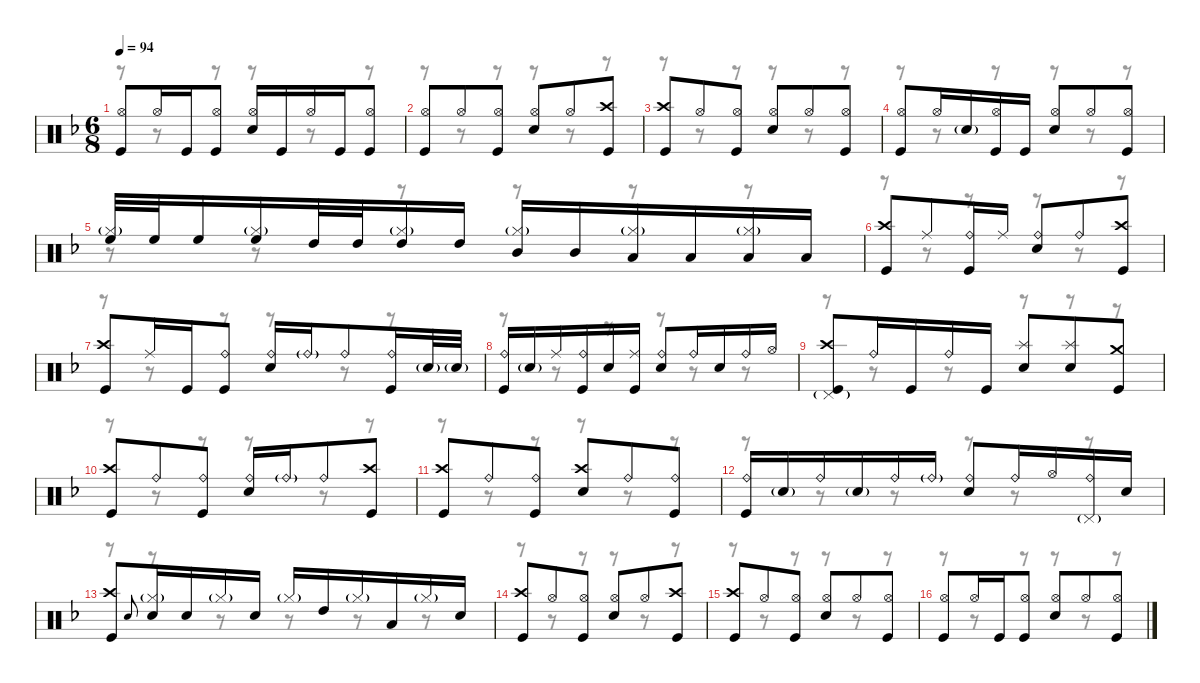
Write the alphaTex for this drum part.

\defaultSystemsLayout 4
\hideDynamics
\bracketExtendMode nobrackets
\singleTrackTrackNamePolicy hidden
\multiTrackTrackNamePolicy hidden
\otherSystemsTrackNameOrientation horizontal
\track ("M. Lopez" "drm.") {instrument percussion}
\staff {score}
\articulation defaults
\voice
\ts (6 8)
\tempo 94
\clef neutral
\ks dminor
("Hi-Hat (open)"{acc forcenatural} "Kick (hit)"{acc forcenatural}).8{dy f beam Up} "Hi-Hat (open)"{acc forcenatural}.16{beam Up} "Kick (hit)"{acc forcenatural}.16{beam Up} ("Hi-Hat (open)"{acc forcenatural} "Kick (hit)"{acc forcenatural}).8{beam Up} ("Hi-Hat (open)"{acc forcenatural} "Snare (hit) 2"{acc forcenatural}).16{beam Up} "Kick (hit)"{acc forcenatural}.16{beam Up} "Hi-Hat (open)"{acc forcenatural}.16{beam Up} "Kick (hit)"{acc forcenatural}.16{beam Up} ("Hi-Hat (open)"{acc forcenatural} "Kick (hit)"{acc forcenatural}).8{beam Up} |
("Hi-Hat (open)"{acc forcenatural} "Kick (hit)"{acc forcenatural}).8{beam Up} "Hi-Hat (open)"{acc forcenatural}.8{beam Up} ("Hi-Hat (open)"{acc forcenatural} "Kick (hit)"{acc forcenatural}).8{beam Up} ("Hi-Hat (open)"{acc forcenatural} "Snare (hit) 2"{acc forcenatural}).8{beam Up} "Hi-Hat (open)"{acc forcenatural}.8{beam Up} ("Crash high (hit)"{acc forcenatural} "Kick (hit)"{acc forcenatural}).8{beam Up} |
("Crash high (hit)"{acc forcenatural} "Kick (hit)"{acc forcenatural}).8{beam Up} "Hi-Hat (open)"{acc forcenatural}.8{beam Up} ("Hi-Hat (open)"{acc forcenatural} "Kick (hit)"{acc forcenatural}).8{beam Up} ("Hi-Hat (open)"{acc forcenatural} "Snare (hit) 2"{acc forcenatural}).8{beam Up} "Hi-Hat (open)"{acc forcenatural}.8{beam Up} ("Hi-Hat (open)"{acc forcenatural} "Kick (hit)"{acc forcenatural}).8{beam Up} |
("Hi-Hat (open)"{acc forcenatural} "Kick (hit)"{acc forcenatural}).8{beam Up} "Hi-Hat (open)"{acc forcenatural}.16{beam Up} "Snare (hit) 2"{g acc forcenatural}.16{dy ff beam Up} ("Hi-Hat (open)"{acc forcenatural} "Kick (hit)"{acc forcenatural}).16{dy f beam Up} "Kick (hit)"{acc forcenatural}.16{beam Up} ("Hi-Hat (open)"{acc forcenatural} "Snare (hit) 2"{acc forcenatural}).8{beam Up} "Hi-Hat (open)"{acc forcenatural}.8{beam Up} ("Hi-Hat (open)"{acc forcenatural} "Kick (hit)"{acc forcenatural}).8{beam Up} |
("Hi-Hat (closed)"{g acc forcenatural} "High Floor Tom (hit)"{acc forcenatural}).32{beam Up} "High Floor Tom (hit)"{acc forcenatural}.32{beam Up} "High Floor Tom (hit)"{acc forcenatural}.16{beam Up} ("Hi-Hat (closed)"{g acc forcenatural} "High Floor Tom (hit)"{acc forcenatural}).16{beam Up} "High Tom (hit)"{acc forcenatural}.32{beam Up} "High Tom (hit)"{acc forcenatural}.32{beam Up} ("Hi-Hat (closed)"{g acc forcenatural} "High Tom (hit)"{acc forcenatural}).16{beam Up} "High Tom (hit)"{acc forcenatural}.16{beam Up} ("Hi-Hat (closed)"{g acc forcenatural} "Mid Tom (hit)"{acc forcenatural}).16{beam Up} "Mid Tom (hit)"{acc forcenatural}.16{beam Up} ("Hi-Hat (closed)"{g acc forcenatural} "Low Tom (hit)"{acc forcenatural}).16{beam Up} "Low Tom (hit)"{acc forcenatural}.16{beam Up} ("Hi-Hat (closed)"{g acc forcenatural} "Low Floor Tom (hit)"{acc forcenatural}).16{beam Up} "Low Floor Tom (hit)"{acc forcenatural}.16{beam Up} |
("Crash high (hit)"{acc forcenatural} "Kick (hit)"{acc forcenatural}).8{beam Up} "Ride (middle)"{acc forcenatural}.8{beam Up} ("Ride (bell)"{acc forcenatural} "Kick (hit)"{acc forcenatural}).16{beam Up} "Ride (middle)"{acc forcenatural}.16{beam Up} ("Ride (bell)"{acc forcenatural} "Snare (hit) 2"{acc forcenatural}).8{beam Up} "Ride (bell)"{acc forcenatural}.8{beam Up} ("Crash high (hit)"{acc forcenatural} "Kick (hit)"{acc forcenatural}).8{beam Up} |
("Crash high (hit)"{acc forcenatural} "Kick (hit)"{acc forcenatural}).8{beam Up} "Ride (middle)"{acc forcenatural}.16{beam Up} "Kick (hit)"{acc forcenatural}.16{beam Up} ("Ride (bell)"{acc forcenatural} "Kick (hit)"{acc forcenatural}).8{beam Up} ("Ride (bell)"{acc forcenatural} "Snare (hit) 2"{acc forcenatural}).16{beam Up} "Ride (bell)"{g acc forcenatural}.16{beam Up} "Ride (bell)"{acc forcenatural}.8{beam Up} ("Ride (bell)"{acc forcenatural} "Kick (hit)"{acc forcenatural}).16{beam Up} "Snare (hit) 2"{g acc forcenatural}.32{beam Up} "Snare (hit) 2"{g acc forcenatural}.32{beam Up} |
("Ride (bell)"{acc forcenatural} "Kick (hit)"{acc forcenatural}).16{beam Up} "Snare (hit) 2"{g acc forcenatural}.16{beam Up} "Ride (middle)"{acc forcenatural}.16{beam Up} ("Ride (bell)"{acc forcenatural} "Kick (hit)"{acc forcenatural}).16{beam Up} "Snare (hit) 2"{acc forcenatural}.16{dy mf beam Up} ("Ride (middle)"{acc forcenatural} "Kick (hit)"{acc forcenatural}).16{dy f beam Up} ("Ride (bell)"{acc forcenatural} "Snare (hit) 2"{acc forcenatural}).8{beam Up} "Ride (bell)"{acc forcenatural}.16{beam Up} "Snare (hit) 2"{acc forcenatural}.16{dy mf beam Up} "Ride (bell)"{acc forcenatural}.16{dy f beam Up} "Hi-Hat (open)"{acc forcenatural}.16{beam Up} |
("Crash high (hit)"{acc forcenatural} "Pedal Hi-Hat (hit)"{g acc forcenatural} "Kick (hit)"{acc forcenatural}).8{beam Up} "Ride (bell)"{acc forcenatural}.16{beam Up} "Kick (hit)"{acc forcenatural}.16{beam Up} "Ride (bell)"{acc forcenatural}.16{beam Up} "Kick (hit)"{acc forcenatural}.16{beam Up} ("Splash (hit)"{acc forcenatural} "Snare (hit) 2"{acc forcenatural}).8{beam Up} ("Splash (hit)"{acc forcenatural} "Snare (hit) 2"{acc forcenatural}).8{beam Up} ("Crash medium (hit)"{acc forcenatural} "Kick (hit)"{acc forcenatural}).8{beam Up} |
("Crash high (hit)"{acc forcenatural} "Kick (hit)"{acc forcenatural}).8{beam Up} "Ride (bell)"{acc forcenatural}.8{beam Up} ("Ride (bell)"{acc forcenatural} "Kick (hit)"{acc forcenatural}).8{beam Up} ("Ride (bell)"{acc forcenatural} "Snare (hit) 2"{acc forcenatural}).16{beam Up} "Ride (bell)"{g acc forcenatural}.16{beam Up} "Ride (bell)"{acc forcenatural}.8{beam Up} ("Crash high (hit)"{acc forcenatural} "Kick (hit)"{acc forcenatural}).8{beam Up} |
("Crash high (hit)"{acc forcenatural} "Kick (hit)"{acc forcenatural}).8{beam Up} "Ride (bell)"{acc forcenatural}.8{beam Up} ("Ride (bell)"{acc forcenatural} "Kick (hit)"{acc forcenatural}).8{beam Up} ("Crash high (hit)"{acc forcenatural} "Snare (hit) 2"{acc forcenatural}).8{beam Up} "Ride (bell)"{acc forcenatural}.8{beam Up} ("Ride (bell)"{acc forcenatural} "Kick (hit)"{acc forcenatural}).8{beam Up} |
("Ride (bell)"{acc forcenatural} "Kick (hit)"{acc forcenatural}).16{beam Up} "Snare (hit) 2"{g acc forcenatural}.16{dy ff beam Up} "Ride (bell)"{acc forcenatural}.16{dy f beam Up} "Snare (hit) 2"{g acc forcenatural}.16{dy ff beam Up} "Ride (bell)"{acc forcenatural}.16{dy f beam Up} "Ride (bell)"{g acc forcenatural}.16{beam Up} ("Ride (bell)"{acc forcenatural} "Snare (hit) 2"{acc forcenatural}).8{beam Up} "Ride (bell)"{acc forcenatural}.16{beam Up} "Hi-Hat (open)"{acc forcenatural}.16{dy mf beam Up} ("Pedal Hi-Hat (hit)"{g acc forcenatural} "Ride (bell)"{acc forcenatural}).16{dy f beam Up} "Snare (hit) 2"{acc forcenatural}.16{beam Up} |
("Crash high (hit)"{acc forcenatural} "Kick (hit)"{acc forcenatural}).8{beam Up} "Electric Snare (hit)"{acc forcenatural}.8{gr onbeat dy mf beam Up} ("Hi-Hat (closed)"{g acc forcenatural} "Snare (hit) 2"{acc forcenatural}).16{dy f beam Up} "Snare (hit) 2"{acc forcenatural}.16{beam Up} "Hi-Hat (closed)"{g acc forcenatural}.16{dy mf beam Up} "Snare (hit) 2"{acc forcenatural}.16{dy f beam Up} "Hi-Hat (closed)"{g acc forcenatural}.16{dy mf beam Up} "High Tom (hit)"{acc forcenatural}.16{dy f beam Up} "Hi-Hat (closed)"{g acc forcenatural}.16{dy mf beam Up} "Low Tom (hit)"{acc forcenatural}.16{dy f beam Up} "Hi-Hat (closed)"{g acc forcenatural}.16{dy mf beam Up} "Snare (hit) 2"{acc forcenatural}.16{dy f beam Up} |
("Crash high (hit)"{acc forcenatural} "Kick (hit)"{acc forcenatural}).8{beam Up} "Hi-Hat (open)"{acc forcenatural}.8{beam Up} ("Hi-Hat (open)"{acc forcenatural} "Kick (hit)"{acc forcenatural}).8{beam Up} ("Hi-Hat (open)"{acc forcenatural} "Snare (hit) 2"{acc forcenatural}).8{beam Up} "Hi-Hat (open)"{acc forcenatural}.8{beam Up} ("Crash high (hit)"{acc forcenatural} "Kick (hit)"{acc forcenatural}).8{beam Up} |
("Crash high (hit)"{acc forcenatural} "Kick (hit)"{acc forcenatural}).8{beam Up} "Hi-Hat (open)"{acc forcenatural}.8{beam Up} ("Hi-Hat (open)"{acc forcenatural} "Kick (hit)"{acc forcenatural}).8{beam Up} ("Hi-Hat (open)"{acc forcenatural} "Snare (hit) 2"{acc forcenatural}).8{beam Up} "Hi-Hat (open)"{acc forcenatural}.8{beam Up} ("Hi-Hat (open)"{acc forcenatural} "Kick (hit)"{acc forcenatural}).8{beam Up} |
("Hi-Hat (open)"{acc forcenatural} "Kick (hit)"{acc forcenatural}).8{beam Up} "Hi-Hat (open)"{acc forcenatural}.16{beam Up} "Kick (hit)"{acc forcenatural}.16{beam Up} ("Hi-Hat (open)"{acc forcenatural} "Kick (hit)"{acc forcenatural}).8{beam Up} ("Hi-Hat (open)"{acc forcenatural} "Snare (hit) 2"{acc forcenatural}).8{beam Up} "Hi-Hat (open)"{acc forcenatural}.8{beam Up} ("Hi-Hat (open)"{acc forcenatural} "Kick (hit)"{acc forcenatural}).8{beam Up}
\voice
\clef neutral
\ottava regular
\simile none
\ks dminor
r.8{dy mf beam Down} r.8{beam Down} r.8{beam Down} r.8{beam Down} r.8{beam Down} r.8{beam Down} |
r.8{beam Down} r.8{beam Down} r.8{beam Down} r.8{beam Down} r.8{beam Down} r.8{beam Down} |
r.8{beam Down} r.8{beam Down} r.8{beam Down} r.8{beam Down} r.8{beam Down} r.8{beam Down} |
r.8{beam Down} r.8{beam Down} r.8{beam Down} r.8{beam Down} r.8{beam Down} r.8{beam Down} |
r.8{beam Down} r.8{beam Down} r.8{beam Down} r.8{beam Down} r.8{beam Down} r.8{beam Down} |
r.8{beam Down} r.8{beam Down} r.8{beam Down} r.8{beam Down} r.8{beam Down} r.8{beam Down} |
r.8{beam Down} r.8{beam Down} r.8{beam Down} r.8{beam Down} r.8{beam Down} r.8{beam Down} |
r.8{beam Down} r.8{beam Down} r.8{beam Down} r.8{beam Down} r.8{beam Down} r.8{beam Down} |
r.8{beam Down} r.8{beam Down} r.8{beam Down} r.8{beam Down} r.8{beam Down} r.8{beam Down} |
r.8{beam Down} r.8{beam Down} r.8{beam Down} r.8{beam Down} r.8{beam Down} r.8{beam Down} |
r.8{beam Down} r.8{beam Down} r.8{beam Down} r.8{beam Down} r.8{beam Down} r.8{beam Down} |
r.8{beam Down} r.8{beam Down} r.8{beam Down} r.8{beam Down} r.8{beam Down} r.8{beam Down} |
r.8{beam Down} r.8{beam Down} r.8{beam Down} r.8{beam Down} r.8{beam Down} r.8{beam Down} |
r.8{beam Down} r.8{beam Down} r.8{beam Down} r.8{beam Down} r.8{beam Down} r.8{beam Down} |
r.8{beam Down} r.8{beam Down} r.8{beam Down} r.8{beam Down} r.8{beam Down} r.8{beam Down} |
r.8{beam Down} r.8{beam Down} r.8{beam Down} r.8{beam Down} r.8{beam Down} r.8{beam Down}
